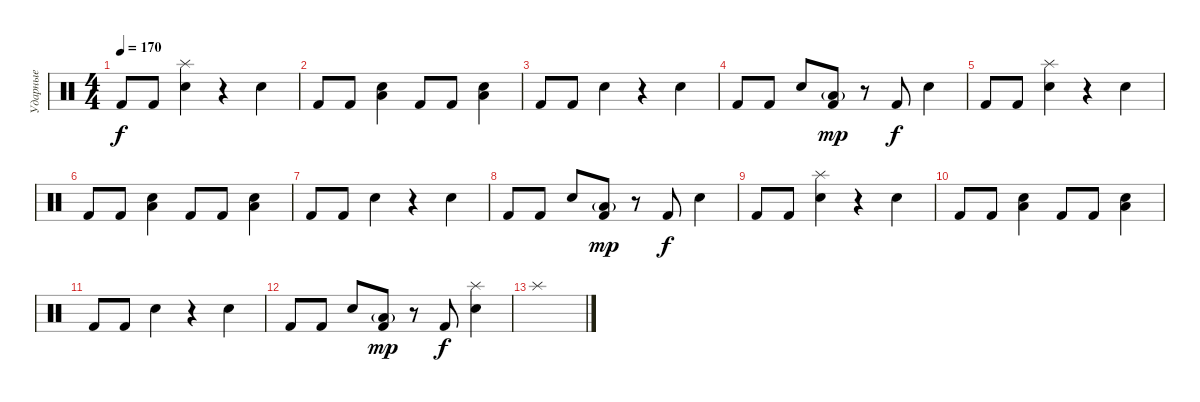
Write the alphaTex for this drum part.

\track ("Ударные" "Ударные") {instrument percussion}
\staff {score}
\articulation defaults
\ts (4 4)
\tempo 170
\clef neutral
\ks c "Kick (hit) 2".8{dy f} "Kick (hit) 2".8
("Snare (hit) 2" "Splash (hit)").4 r.4 "Snare (hit) 2".4 |
"Kick (hit) 2".8 "Kick (hit) 2".8 ("Snare (hit) 2" "Low Floor Tom (hit)").4 "Kick (hit) 2".8 "Kick (hit) 2".8 ("Snare (hit) 2" "Low Floor Tom (hit)").4 |
"Kick (hit) 2".8 "Kick (hit) 2".8 "Snare (hit) 2".4 r.4 "Snare (hit) 2".4 |
"Kick (hit) 2".8 "Kick (hit) 2".8 "Snare (hit) 2".8 ("Kick (hit) 2" "Low Floor Tom (hit)"{g}).8{dy mp} r.8 "Kick (hit) 2".8{dy f} "Snare (hit) 2".4 |
"Kick (hit) 2".8 "Kick (hit) 2".8 ("Snare (hit) 2" "Splash (hit)").4 r.4 "Snare (hit) 2".4 |
"Kick (hit) 2".8 "Kick (hit) 2".8 ("Snare (hit) 2" "Low Floor Tom (hit)").4 "Kick (hit) 2".8 "Kick (hit) 2".8 ("Snare (hit) 2" "Low Floor Tom (hit)").4 |
"Kick (hit) 2".8 "Kick (hit) 2".8 "Snare (hit) 2".4 r.4 "Snare (hit) 2".4 |
"Kick (hit) 2".8 "Kick (hit) 2".8 "Snare (hit) 2".8 ("Kick (hit) 2" "Low Floor Tom (hit)"{g}).8{dy mp} r.8 "Kick (hit) 2".8{dy f} "Snare (hit) 2".4 |
"Kick (hit) 2".8 "Kick (hit) 2".8 ("Snare (hit) 2" "Splash (hit)").4 r.4 "Snare (hit) 2".4 |
"Kick (hit) 2".8 "Kick (hit) 2".8 ("Snare (hit) 2" "Low Floor Tom (hit)").4 "Kick (hit) 2".8 "Kick (hit) 2".8 ("Snare (hit) 2" "Low Floor Tom (hit)").4 |
"Kick (hit) 2".8 "Kick (hit) 2".8 "Snare (hit) 2".4 r.4 "Snare (hit) 2".4 |
"Kick (hit) 2".8 "Kick (hit) 2".8 "Snare (hit) 2".8 ("Kick (hit) 2" "Low Floor Tom (hit)"{g}).8{dy mp} r.8 "Kick (hit) 2".8{dy f} ("Snare (hit) 2" "Splash (hit)").4 |
"Splash (hit)".1
